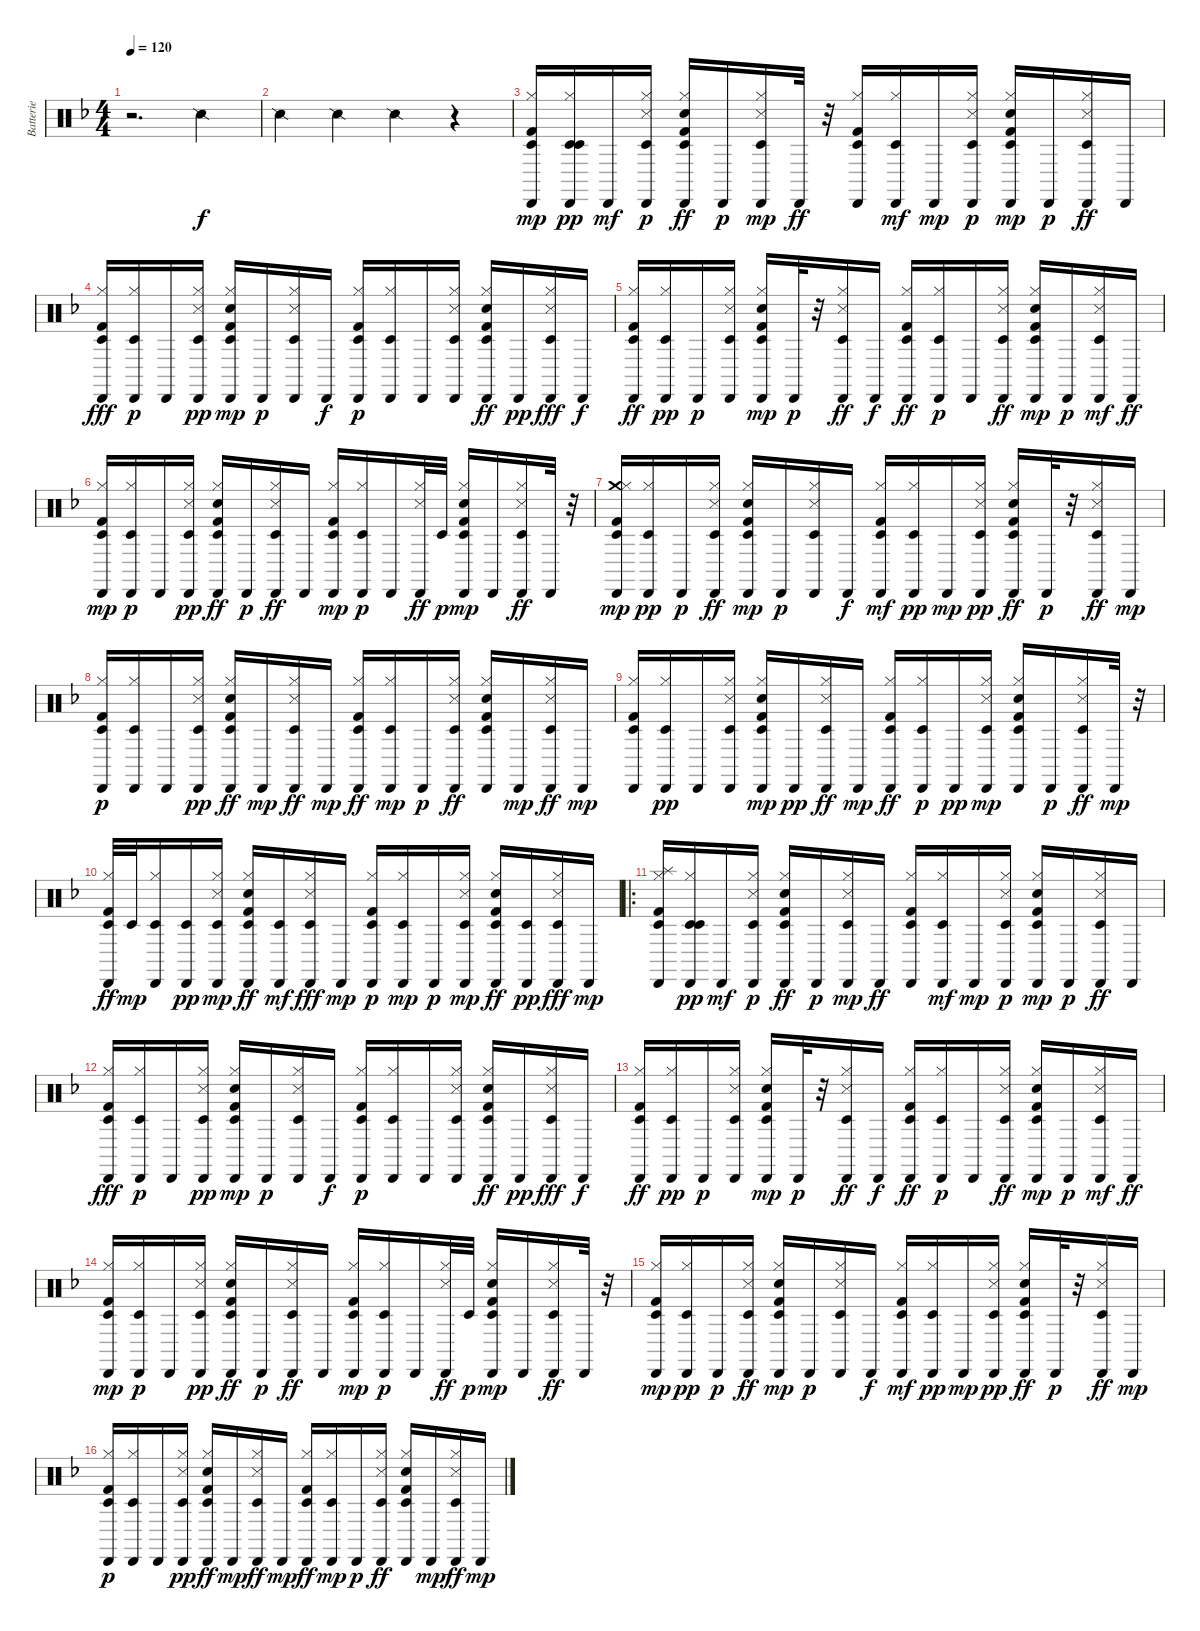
\track ("Batterie" "Batterie") {instrument percussion}
\staff {score}
\articulation defaults
\ts (4 4)
\tempo 120
\clef neutral
\ks f
r.2{d dy f} "Snare (side stick) 2".4 |
"Snare (side stick) 2".4 "Snare (side stick) 2".4 "Snare (side stick) 2".4 r.4 |
("Hi-Hat (closed)" "Kick (hit) 2" "Cabasa (hit)" "Timbale low (hit)").16{dy mp} ("Hi-Hat (closed)" "Cabasa (hit)" "Timbale low (hit)" "Timbale low (hit)").16{dy pp} "Cabasa (hit)".16{dy mf} ("Cabasa (hit)" "Snare (side stick) 3" "Hi-Hat (closed)" "Timbale low (hit)").16{dy p} ("Timbale low (hit)" "Hand Clap (hit)" "Hi-Hat (closed)" "Cabasa (hit)" "Kick (hit) 2").16{dy ff} "Cabasa (hit)".16{dy p} ("Timbale low (hit)" "Cabasa (hit)" "Snare (side stick) 3" "Hi-Hat (closed)").16{dy mp} "Cabasa (hit)".32{dy ff} r.32 ("Timbale low (hit)" "Cabasa (hit)" "Kick (hit) 2" "Hi-Hat (closed)").16 ("Timbale low (hit)" "Cabasa (hit)" "Hi-Hat (closed)").16{dy mf} "Cabasa (hit)".16{dy mp} ("Snare (side stick) 3" "Cabasa (hit)" "Timbale low (hit)" "Hi-Hat (closed)").16{dy p} ("Timbale low (hit)" "Cabasa (hit)" "Hand Clap (hit)" "Kick (hit) 2" "Hi-Hat (closed)").16{dy mp} "Cabasa (hit)".16{dy p} ("Cabasa (hit)" "Snare (side stick) 3" "Timbale low (hit)" "Hi-Hat (closed)").16{dy ff} "Cabasa (hit)".16 |
("Cabasa (hit)" "Kick (hit) 2" "Timbale low (hit)" "Hi-Hat (closed)").16{dy fff} ("Hi-Hat (closed)" "Cabasa (hit)" "Timbale low (hit)").16{dy p} "Cabasa (hit)".16 ("Cabasa (hit)" "Snare (side stick) 3" "Hi-Hat (closed)" "Timbale low (hit)").16{dy pp} ("Kick (hit) 2" "Hi-Hat (closed)" "Cabasa (hit)" "Hand Clap (hit)" "Timbale low (hit)").16{dy mp} "Cabasa (hit)".16{dy p} ("Hi-Hat (closed)" "Cabasa (hit)" "Snare (side stick) 3" "Timbale low (hit)").16 "Cabasa (hit)".16{dy f} ("Kick (hit) 2" "Timbale low (hit)" "Hi-Hat (closed)" "Cabasa (hit)").16{dy p} ("Hi-Hat (closed)" "Cabasa (hit)" "Timbale low (hit)").16 "Cabasa (hit)".16 ("Cabasa (hit)" "Hi-Hat (closed)" "Snare (side stick) 3" "Timbale low (hit)").16 ("Timbale low (hit)" "Hi-Hat (closed)" "Cabasa (hit)" "Kick (hit) 2" "Hand Clap (hit)").16{dy ff} "Cabasa (hit)".16{dy pp} ("Timbale low (hit)" "Cabasa (hit)" "Hi-Hat (closed)" "Snare (side stick) 3").16{dy fff} "Cabasa (hit)".16{dy f} |
("Kick (hit) 2" "Timbale low (hit)" "Cabasa (hit)" "Hi-Hat (closed)").16{dy ff} ("Hi-Hat (closed)" "Timbale low (hit)" "Cabasa (hit)").16{dy pp} "Cabasa (hit)".16{dy p} ("Cabasa (hit)" "Snare (side stick) 3" "Timbale low (hit)" "Hi-Hat (closed)").16 ("Timbale low (hit)" "Kick (hit) 2" "Hi-Hat (closed)" "Cabasa (hit)" "Hand Clap (hit)").16{dy mp} "Cabasa (hit)".32{dy p} r.32 ("Cabasa (hit)" "Timbale low (hit)" "Snare (side stick) 3" "Hi-Hat (closed)").16{dy ff} "Cabasa (hit)".16{dy f} ("Timbale low (hit)" "Kick (hit) 2" "Cabasa (hit)" "Hi-Hat (closed)").16{dy ff} ("Timbale low (hit)" "Hi-Hat (closed)" "Cabasa (hit)").16{dy p} "Cabasa (hit)".16 ("Timbale low (hit)" "Cabasa (hit)" "Snare (side stick) 3" "Hi-Hat (closed)").16{dy ff} ("Timbale low (hit)" "Hi-Hat (closed)" "Kick (hit) 2" "Hand Clap (hit)" "Cabasa (hit)").16{dy mp} "Cabasa (hit)".16{dy p} ("Cabasa (hit)" "Timbale low (hit)" "Snare (side stick) 3" "Hi-Hat (closed)").16{dy mf} "Cabasa (hit)".16{dy ff} |
("Cabasa (hit)" "Kick (hit) 2" "Timbale low (hit)" "Hi-Hat (closed)").16{dy mp} ("Hi-Hat (closed)" "Timbale low (hit)" "Cabasa (hit)").16{dy p} "Cabasa (hit)".16 ("Cabasa (hit)" "Snare (side stick) 3" "Hi-Hat (closed)" "Timbale low (hit)").16{dy pp} ("Hi-Hat (closed)" "Timbale low (hit)" "Cabasa (hit)" "Kick (hit) 2" "Hand Clap (hit)").16{dy ff} "Cabasa (hit)".16{dy p} ("Cabasa (hit)" "Timbale low (hit)" "Snare (side stick) 3" "Hi-Hat (closed)").16{dy ff} "Cabasa (hit)".16 ("Kick (hit) 2" "Cabasa (hit)" "Timbale low (hit)" "Hi-Hat (closed)").16{dy mp} ("Cabasa (hit)" "Hi-Hat (closed)" "Timbale low (hit)").16{dy p} "Cabasa (hit)".16 ("Cabasa (hit)" "Snare (side stick) 3" "Hi-Hat (closed)").32{dy ff} "Timbale low (hit)".32{dy p} ("Cabasa (hit)" "Kick (hit) 2" "Timbale low (hit)" "Hi-Hat (closed)" "Hand Clap (hit)").16{dy mp} "Cabasa (hit)".16 ("Cabasa (hit)" "Hi-Hat (closed)" "Snare (side stick) 3" "Timbale low (hit)").16{dy ff} "Cabasa (hit)".32 r.32 |
("Crash medium (hit)" "Kick (hit) 2" "Cabasa (hit)" "Hi-Hat (closed)" "Timbale low (hit)").16{dy mp} ("Hi-Hat (closed)" "Cabasa (hit)" "Timbale low (hit)").16{dy pp} "Cabasa (hit)".16{dy p} ("Cabasa (hit)" "Snare (side stick) 3" "Timbale low (hit)" "Hi-Hat (closed)").16{dy ff} ("Kick (hit) 2" "Timbale low (hit)" "Hi-Hat (closed)" "Cabasa (hit)" "Hand Clap (hit)").16{dy mp} "Cabasa (hit)".16{dy p} ("Snare (side stick) 3" "Cabasa (hit)" "Hi-Hat (closed)" "Timbale low (hit)").16 "Cabasa (hit)".16{dy f} ("Kick (hit) 2" "Timbale low (hit)" "Cabasa (hit)" "Hi-Hat (closed)").16{dy mf} ("Hi-Hat (closed)" "Timbale low (hit)" "Cabasa (hit)").16{dy pp} "Cabasa (hit)".16{dy mp} ("Cabasa (hit)" "Snare (side stick) 3" "Hi-Hat (closed)" "Timbale low (hit)").16{dy pp} ("Timbale low (hit)" "Hi-Hat (closed)" "Kick (hit) 2" "Cabasa (hit)" "Hand Clap (hit)").16{dy ff} "Cabasa (hit)".32{dy p} r.32 ("Hi-Hat (closed)" "Cabasa (hit)" "Timbale low (hit)" "Snare (side stick) 3").16{dy ff} "Cabasa (hit)".16{dy mp} |
("Kick (hit) 2" "Cabasa (hit)" "Hi-Hat (closed)" "Timbale low (hit)").16{dy p} ("Hi-Hat (closed)" "Timbale low (hit)" "Cabasa (hit)").16 "Cabasa (hit)".16 ("Cabasa (hit)" "Snare (side stick) 3" "Hi-Hat (closed)" "Timbale low (hit)").16{dy pp} ("Timbale low (hit)" "Hi-Hat (closed)" "Cabasa (hit)" "Kick (hit) 2" "Hand Clap (hit)").16{dy ff} "Cabasa (hit)".16{dy mp} ("Timbale low (hit)" "Cabasa (hit)" "Snare (side stick) 3" "Hi-Hat (closed)").16{dy ff} "Cabasa (hit)".16{dy mp} ("Timbale low (hit)" "Cabasa (hit)" "Kick (hit) 2" "Hi-Hat (closed)").16{dy ff} ("Timbale low (hit)" "Hi-Hat (closed)" "Cabasa (hit)").16{dy mp} "Cabasa (hit)".16{dy p} ("Cabasa (hit)" "Snare (side stick) 3" "Timbale low (hit)" "Hi-Hat (closed)").16{dy ff} ("Timbale low (hit)" "Hi-Hat (closed)" "Kick (hit) 2" "Cabasa (hit)" "Hand Clap (hit)").16 "Cabasa (hit)".16{dy mp} ("Cabasa (hit)" "Timbale low (hit)" "Hi-Hat (closed)" "Snare (side stick) 3").16{dy ff} "Cabasa (hit)".16{dy mp} |
("Kick (hit) 2" "Cabasa (hit)" "Hi-Hat (closed)" "Timbale low (hit)").16 ("Hi-Hat (closed)" "Timbale low (hit)" "Cabasa (hit)").16{dy pp} "Cabasa (hit)".16 ("Snare (side stick) 3" "Cabasa (hit)" "Hi-Hat (closed)" "Timbale low (hit)").16 ("Timbale low (hit)" "Kick (hit) 2" "Hi-Hat (closed)" "Cabasa (hit)" "Hand Clap (hit)").16{dy mp} "Cabasa (hit)".16{dy pp} ("Cabasa (hit)" "Timbale low (hit)" "Snare (side stick) 3" "Hi-Hat (closed)").16{dy ff} "Cabasa (hit)".16{dy mp} ("Timbale low (hit)" "Kick (hit) 2" "Cabasa (hit)" "Hi-Hat (closed)").16{dy ff} ("Hi-Hat (closed)" "Timbale low (hit)" "Cabasa (hit)").16{dy p} "Cabasa (hit)".16{dy pp} ("Snare (side stick) 3" "Timbale low (hit)" "Cabasa (hit)" "Hi-Hat (closed)").16{dy mp} ("Timbale low (hit)" "Kick (hit) 2" "Hand Clap (hit)" "Cabasa (hit)" "Hi-Hat (closed)").16 "Cabasa (hit)".16{dy p} ("Cabasa (hit)" "Hi-Hat (closed)" "Snare (side stick) 3" "Timbale low (hit)").16{dy ff} "Cabasa (hit)".32{dy mp} r.32 |
("Kick (hit) 2" "Cabasa (hit)" "Timbale low (hit)" "Hi-Hat (closed)").32{dy ff} "Timbale low (hit)".32{dy mp} ("Hi-Hat (closed)" "Cabasa (hit)" "Timbale low (hit)").16 ("Timbale low (hit)" "Cabasa (hit)").16{dy pp} ("Cabasa (hit)" "Snare (side stick) 3" "Hi-Hat (closed)" "Timbale low (hit)").16{dy mp} ("Timbale low (hit)" "Hi-Hat (closed)" "Kick (hit) 2" "Cabasa (hit)" "Hand Clap (hit)").16{dy ff} ("Cabasa (hit)" "Timbale low (hit)").16{dy mf} ("Cabasa (hit)" "Hi-Hat (closed)" "Timbale low (hit)" "Snare (side stick) 3").16{dy fff} "Cabasa (hit)".16{dy mp} ("Kick (hit) 2" "Cabasa (hit)" "Hi-Hat (closed)" "Timbale low (hit)").16{dy p} ("Hi-Hat (closed)" "Cabasa (hit)" "Timbale low (hit)").16{dy mp} "Cabasa (hit)".16{dy p} ("Hi-Hat (closed)" "Cabasa (hit)" "Timbale low (hit)" "Snare (side stick) 3").16{dy mp} ("Hi-Hat (closed)" "Timbale low (hit)" "Kick (hit) 2" "Cabasa (hit)" "Hand Clap (hit)").16{dy ff} ("Timbale low (hit)" "Cabasa (hit)").16{dy pp} ("Cabasa (hit)" "Hi-Hat (closed)" "Snare (side stick) 3" "Timbale low (hit)").16{dy fff} "Cabasa (hit)".16{dy mp} |
\ro
("Hi-Hat (closed)" "Splash (hit)" "Kick (hit) 2" "Cabasa (hit)" "Timbale low (hit)").16 ("Hi-Hat (closed)" "Cabasa (hit)" "Timbale low (hit)" "Timbale low (hit)").16{dy pp} "Cabasa (hit)".16{dy mf} ("Cabasa (hit)" "Snare (side stick) 3" "Hi-Hat (closed)" "Timbale low (hit)").16{dy p} ("Timbale low (hit)" "Hand Clap (hit)" "Hi-Hat (closed)" "Cabasa (hit)" "Kick (hit) 2").16{dy ff} "Cabasa (hit)".16{dy p} ("Timbale low (hit)" "Cabasa (hit)" "Snare (side stick) 3" "Hi-Hat (closed)").16{dy mp} "Cabasa (hit)".16{dy ff} ("Timbale low (hit)" "Cabasa (hit)" "Kick (hit) 2" "Hi-Hat (closed)").16 ("Timbale low (hit)" "Cabasa (hit)" "Hi-Hat (closed)").16{dy mf} "Cabasa (hit)".16{dy mp} ("Snare (side stick) 3" "Cabasa (hit)" "Timbale low (hit)" "Hi-Hat (closed)").16{dy p} ("Timbale low (hit)" "Cabasa (hit)" "Hand Clap (hit)" "Kick (hit) 2" "Hi-Hat (closed)").16{dy mp} "Cabasa (hit)".16{dy p} ("Cabasa (hit)" "Snare (side stick) 3" "Timbale low (hit)" "Hi-Hat (closed)").16{dy ff} "Cabasa (hit)".16 |
("Cabasa (hit)" "Kick (hit) 2" "Timbale low (hit)" "Hi-Hat (closed)").16{dy fff} ("Hi-Hat (closed)" "Cabasa (hit)" "Timbale low (hit)").16{dy p} "Cabasa (hit)".16 ("Cabasa (hit)" "Snare (side stick) 3" "Hi-Hat (closed)" "Timbale low (hit)").16{dy pp} ("Kick (hit) 2" "Hi-Hat (closed)" "Cabasa (hit)" "Hand Clap (hit)" "Timbale low (hit)").16{dy mp} "Cabasa (hit)".16{dy p} ("Hi-Hat (closed)" "Cabasa (hit)" "Snare (side stick) 3" "Timbale low (hit)").16 "Cabasa (hit)".16{dy f} ("Kick (hit) 2" "Timbale low (hit)" "Hi-Hat (closed)" "Cabasa (hit)").16{dy p} ("Hi-Hat (closed)" "Cabasa (hit)" "Timbale low (hit)").16 "Cabasa (hit)".16 ("Cabasa (hit)" "Hi-Hat (closed)" "Snare (side stick) 3" "Timbale low (hit)").16 ("Timbale low (hit)" "Hi-Hat (closed)" "Cabasa (hit)" "Kick (hit) 2" "Hand Clap (hit)").16{dy ff} "Cabasa (hit)".16{dy pp} ("Timbale low (hit)" "Cabasa (hit)" "Hi-Hat (closed)" "Snare (side stick) 3").16{dy fff} "Cabasa (hit)".16{dy f} |
("Kick (hit) 2" "Timbale low (hit)" "Cabasa (hit)" "Hi-Hat (closed)").16{dy ff} ("Hi-Hat (closed)" "Timbale low (hit)" "Cabasa (hit)").16{dy pp} "Cabasa (hit)".16{dy p} ("Cabasa (hit)" "Snare (side stick) 3" "Timbale low (hit)" "Hi-Hat (closed)").16 ("Timbale low (hit)" "Kick (hit) 2" "Hi-Hat (closed)" "Cabasa (hit)" "Hand Clap (hit)").16{dy mp} "Cabasa (hit)".32{dy p} r.32 ("Cabasa (hit)" "Timbale low (hit)" "Snare (side stick) 3" "Hi-Hat (closed)").16{dy ff} "Cabasa (hit)".16{dy f} ("Timbale low (hit)" "Kick (hit) 2" "Cabasa (hit)" "Hi-Hat (closed)").16{dy ff} ("Timbale low (hit)" "Hi-Hat (closed)" "Cabasa (hit)").16{dy p} "Cabasa (hit)".16 ("Timbale low (hit)" "Cabasa (hit)" "Snare (side stick) 3" "Hi-Hat (closed)").16{dy ff} ("Timbale low (hit)" "Hi-Hat (closed)" "Kick (hit) 2" "Hand Clap (hit)" "Cabasa (hit)").16{dy mp} "Cabasa (hit)".16{dy p} ("Cabasa (hit)" "Timbale low (hit)" "Snare (side stick) 3" "Hi-Hat (closed)").16{dy mf} "Cabasa (hit)".16{dy ff} |
("Cabasa (hit)" "Kick (hit) 2" "Timbale low (hit)" "Hi-Hat (closed)").16{dy mp} ("Hi-Hat (closed)" "Timbale low (hit)" "Cabasa (hit)").16{dy p} "Cabasa (hit)".16 ("Cabasa (hit)" "Snare (side stick) 3" "Hi-Hat (closed)" "Timbale low (hit)").16{dy pp} ("Hi-Hat (closed)" "Timbale low (hit)" "Cabasa (hit)" "Kick (hit) 2" "Hand Clap (hit)").16{dy ff} "Cabasa (hit)".16{dy p} ("Cabasa (hit)" "Timbale low (hit)" "Snare (side stick) 3" "Hi-Hat (closed)").16{dy ff} "Cabasa (hit)".16 ("Kick (hit) 2" "Cabasa (hit)" "Timbale low (hit)" "Hi-Hat (closed)").16{dy mp} ("Cabasa (hit)" "Hi-Hat (closed)" "Timbale low (hit)").16{dy p} "Cabasa (hit)".16 ("Cabasa (hit)" "Snare (side stick) 3" "Hi-Hat (closed)").32{dy ff} "Timbale low (hit)".32{dy p} ("Cabasa (hit)" "Kick (hit) 2" "Timbale low (hit)" "Hi-Hat (closed)" "Hand Clap (hit)").16{dy mp} "Cabasa (hit)".16 ("Cabasa (hit)" "Hi-Hat (closed)" "Snare (side stick) 3" "Timbale low (hit)").16{dy ff} "Cabasa (hit)".32 r.32 |
("Kick (hit) 2" "Cabasa (hit)" "Hi-Hat (closed)" "Timbale low (hit)").16{dy mp} ("Hi-Hat (closed)" "Cabasa (hit)" "Timbale low (hit)").16{dy pp} "Cabasa (hit)".16{dy p} ("Cabasa (hit)" "Snare (side stick) 3" "Timbale low (hit)" "Hi-Hat (closed)").16{dy ff} ("Kick (hit) 2" "Timbale low (hit)" "Hi-Hat (closed)" "Cabasa (hit)" "Hand Clap (hit)").16{dy mp} "Cabasa (hit)".16{dy p} ("Snare (side stick) 3" "Cabasa (hit)" "Hi-Hat (closed)" "Timbale low (hit)").16 "Cabasa (hit)".16{dy f} ("Kick (hit) 2" "Timbale low (hit)" "Cabasa (hit)" "Hi-Hat (closed)").16{dy mf} ("Hi-Hat (closed)" "Timbale low (hit)" "Cabasa (hit)").16{dy pp} "Cabasa (hit)".16{dy mp} ("Cabasa (hit)" "Snare (side stick) 3" "Hi-Hat (closed)" "Timbale low (hit)").16{dy pp} ("Timbale low (hit)" "Hi-Hat (closed)" "Kick (hit) 2" "Cabasa (hit)" "Hand Clap (hit)").16{dy ff} "Cabasa (hit)".32{dy p} r.32 ("Hi-Hat (closed)" "Cabasa (hit)" "Timbale low (hit)" "Snare (side stick) 3").16{dy ff} "Cabasa (hit)".16{dy mp} |
("Kick (hit) 2" "Cabasa (hit)" "Hi-Hat (closed)" "Timbale low (hit)").16{dy p} ("Hi-Hat (closed)" "Timbale low (hit)" "Cabasa (hit)").16 "Cabasa (hit)".16 ("Cabasa (hit)" "Snare (side stick) 3" "Hi-Hat (closed)" "Timbale low (hit)").16{dy pp} ("Timbale low (hit)" "Hi-Hat (closed)" "Cabasa (hit)" "Kick (hit) 2" "Hand Clap (hit)").16{dy ff} "Cabasa (hit)".16{dy mp} ("Timbale low (hit)" "Cabasa (hit)" "Snare (side stick) 3" "Hi-Hat (closed)").16{dy ff} "Cabasa (hit)".16{dy mp} ("Timbale low (hit)" "Cabasa (hit)" "Kick (hit) 2" "Hi-Hat (closed)").16{dy ff} ("Timbale low (hit)" "Hi-Hat (closed)" "Cabasa (hit)").16{dy mp} "Cabasa (hit)".16{dy p} ("Cabasa (hit)" "Snare (side stick) 3" "Timbale low (hit)" "Hi-Hat (closed)").16{dy ff} ("Timbale low (hit)" "Hi-Hat (closed)" "Kick (hit) 2" "Cabasa (hit)" "Hand Clap (hit)").16 "Cabasa (hit)".16{dy mp} ("Cabasa (hit)" "Timbale low (hit)" "Hi-Hat (closed)" "Snare (side stick) 3").16{dy ff} "Cabasa (hit)".16{dy mp}
